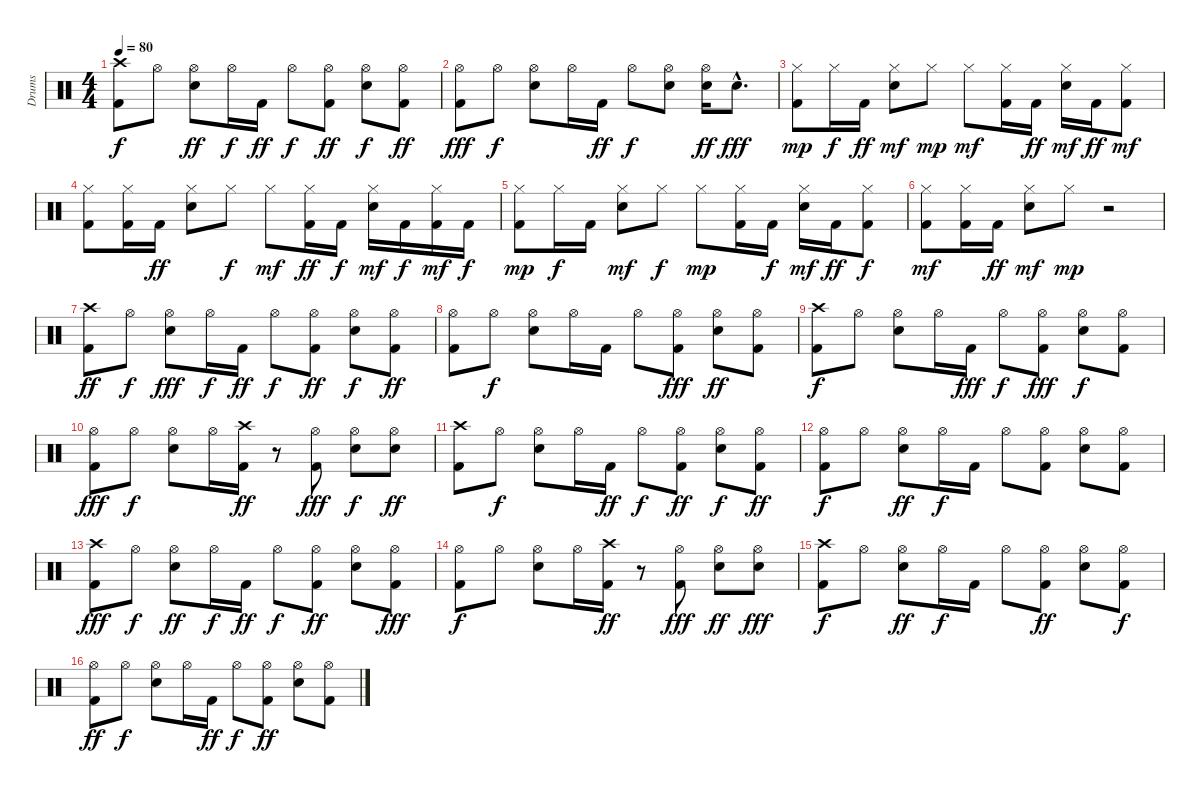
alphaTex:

\track ("Drums" "Drums") {instrument percussion}
\staff {score}
\articulation defaults
\ts (4 4)
\tempo 80
\clef neutral
\ks c
("Kick (hit) 2" "Crash high (hit)").8{dy f} "Hi-Hat (open)".8 ("Snare (hit) 2" "Hi-Hat (open)").8{dy ff} "Hi-Hat (open)".16{dy f} "Kick (hit) 2".16{dy ff} "Hi-Hat (open)".8{dy f} ("Kick (hit) 2" "Hi-Hat (open)").8{dy ff} ("Snare (hit) 2" "Hi-Hat (open)").8{dy f} ("Kick (hit) 2" "Hi-Hat (open)").8{dy ff} |
("Kick (hit) 2" "Hi-Hat (open)").8{dy fff} "Hi-Hat (open)".8{dy f} ("Snare (hit) 2" "Hi-Hat (open)").8 "Hi-Hat (open)".16 "Kick (hit) 2".16{dy ff} "Hi-Hat (open)".8{dy f} ("Snare (hit) 2" "Hi-Hat (open)").8 ("Snare (hit) 2" "Hi-Hat (open)").16{dy ff} "Snare (hit) 2"{hac}.8{d dy fff} |
("Kick (hit) 2" "Hi-Hat (closed)").8{dy mp} "Hi-Hat (closed)".16{dy f} "Kick (hit) 2".16{dy ff} ("Snare (hit) 2" "Hi-Hat (closed)").8{dy mf} "Hi-Hat (closed)".8{dy mp} "Hi-Hat (closed)".8{dy mf} ("Kick (hit) 2" "Hi-Hat (closed)").16 "Kick (hit) 2".16{dy ff} ("Snare (hit) 2" "Hi-Hat (closed)").16{dy mf} "Kick (hit) 2".16{dy ff} ("Kick (hit) 2" "Hi-Hat (closed)").8{dy mf} |
("Kick (hit) 2" "Hi-Hat (closed)").8 ("Kick (hit) 2" "Hi-Hat (closed)").16 "Kick (hit) 2".16{dy ff} ("Snare (hit) 2" "Hi-Hat (closed)").8 "Hi-Hat (closed)".8{dy f} "Hi-Hat (closed)".8{dy mf} ("Kick (hit) 2" "Hi-Hat (closed)").16{dy ff} "Kick (hit) 2".16{dy f} ("Snare (hit) 2" "Hi-Hat (closed)").16{dy mf} "Kick (hit) 2".16{dy f} ("Kick (hit) 2" "Hi-Hat (closed)").16{dy mf} "Kick (hit) 2".16{dy f} |
("Kick (hit) 2" "Hi-Hat (closed)").8{dy mp} "Hi-Hat (closed)".16{dy f} "Kick (hit) 2".16 ("Snare (hit) 2" "Hi-Hat (closed)").8{dy mf} "Hi-Hat (closed)".8{dy f} "Hi-Hat (closed)".8{dy mp} ("Kick (hit) 2" "Hi-Hat (closed)").16 "Kick (hit) 2".16{dy f} ("Snare (hit) 2" "Hi-Hat (closed)").16{dy mf} "Kick (hit) 2".16{dy ff} ("Kick (hit) 2" "Hi-Hat (closed)").8{dy f} |
("Kick (hit) 2" "Hi-Hat (closed)").8{dy mf} ("Kick (hit) 2" "Hi-Hat (closed)").16 "Kick (hit) 2".16{dy ff} ("Snare (hit) 2" "Hi-Hat (closed)").8{dy mf} "Hi-Hat (closed)".8{dy mp} r.2 |
("Kick (hit) 2" "Crash high (hit)").8{dy ff} "Hi-Hat (open)".8{dy f} ("Snare (hit) 2" "Hi-Hat (open)").8{dy fff} "Hi-Hat (open)".16{dy f} "Kick (hit) 2".16{dy ff} "Hi-Hat (open)".8{dy f} ("Kick (hit) 2" "Hi-Hat (open)").8{dy ff} ("Snare (hit) 2" "Hi-Hat (open)").8{dy f} ("Kick (hit) 2" "Hi-Hat (open)").8{dy ff} |
("Kick (hit) 2" "Hi-Hat (open)").8 "Hi-Hat (open)".8{dy f} ("Snare (hit) 2" "Hi-Hat (open)").8 "Hi-Hat (open)".16 "Kick (hit) 2".16 "Hi-Hat (open)".8 ("Kick (hit) 2" "Hi-Hat (open)").8{dy fff} ("Snare (hit) 2" "Hi-Hat (open)").8{dy ff} ("Kick (hit) 2" "Hi-Hat (open)").8 |
("Kick (hit) 2" "Crash high (hit)").8{dy f} "Hi-Hat (open)".8 ("Snare (hit) 2" "Hi-Hat (open)").8 "Hi-Hat (open)".16 "Kick (hit) 2".16{dy fff} "Hi-Hat (open)".8{dy f} ("Kick (hit) 2" "Hi-Hat (open)").8{dy fff} ("Snare (hit) 2" "Hi-Hat (open)").8{dy f} ("Kick (hit) 2" "Hi-Hat (open)").8 |
("Kick (hit) 2" "Hi-Hat (open)").8{dy fff} "Hi-Hat (open)".8{dy f} ("Snare (hit) 2" "Hi-Hat (open)").8 "Hi-Hat (open)".16 ("Kick (hit) 2" "Crash high (hit)").16{dy ff} r.8 ("Kick (hit) 2" "Hi-Hat (open)").8{dy fff} ("Snare (hit) 2" "Hi-Hat (open)").8{dy f} ("Snare (hit) 2" "Hi-Hat (open)").8{dy ff} |
("Kick (hit) 2" "Crash high (hit)").8 "Hi-Hat (open)".8{dy f} ("Snare (hit) 2" "Hi-Hat (open)").8 "Hi-Hat (open)".16 "Kick (hit) 2".16{dy ff} "Hi-Hat (open)".8{dy f} ("Kick (hit) 2" "Hi-Hat (open)").8{dy ff} ("Snare (hit) 2" "Hi-Hat (open)").8{dy f} ("Kick (hit) 2" "Hi-Hat (open)").8{dy ff} |
("Kick (hit) 2" "Hi-Hat (open)").8{dy f} "Hi-Hat (open)".8 ("Snare (hit) 2" "Hi-Hat (open)").8{dy ff} "Hi-Hat (open)".16{dy f} "Kick (hit) 2".16 "Hi-Hat (open)".8 ("Kick (hit) 2" "Hi-Hat (open)").8 ("Snare (hit) 2" "Hi-Hat (open)").8 ("Kick (hit) 2" "Hi-Hat (open)").8 |
("Kick (hit) 2" "Crash high (hit)").8{dy fff} "Hi-Hat (open)".8{dy f} ("Snare (hit) 2" "Hi-Hat (open)").8{dy ff} "Hi-Hat (open)".16{dy f} "Kick (hit) 2".16{dy ff} "Hi-Hat (open)".8{dy f} ("Kick (hit) 2" "Hi-Hat (open)").8{dy ff} ("Snare (hit) 2" "Hi-Hat (open)").8 ("Kick (hit) 2" "Hi-Hat (open)").8{dy fff} |
("Kick (hit) 2" "Hi-Hat (open)").8{dy f} "Hi-Hat (open)".8 ("Snare (hit) 2" "Hi-Hat (open)").8 "Hi-Hat (open)".16 ("Kick (hit) 2" "Crash high (hit)").16{dy ff} r.8 ("Kick (hit) 2" "Hi-Hat (open)").8{dy fff} ("Snare (hit) 2" "Hi-Hat (open)").8{dy ff} ("Snare (hit) 2" "Hi-Hat (open)").8{dy fff} |
("Kick (hit) 2" "Crash high (hit)").8{dy f} "Hi-Hat (open)".8 ("Snare (hit) 2" "Hi-Hat (open)").8{dy ff} "Hi-Hat (open)".16{dy f} "Kick (hit) 2".16 "Hi-Hat (open)".8 ("Kick (hit) 2" "Hi-Hat (open)").8{dy ff} ("Snare (hit) 2" "Hi-Hat (open)").8 ("Kick (hit) 2" "Hi-Hat (open)").8{dy f} |
("Kick (hit) 2" "Hi-Hat (open)").8{dy ff} "Hi-Hat (open)".8{dy f} ("Snare (hit) 2" "Hi-Hat (open)").8 "Hi-Hat (open)".16 "Kick (hit) 2".16{dy ff} "Hi-Hat (open)".8{dy f} ("Kick (hit) 2" "Hi-Hat (open)").8{dy ff} ("Snare (hit) 2" "Hi-Hat (open)").8 ("Kick (hit) 2" "Hi-Hat (open)").8
